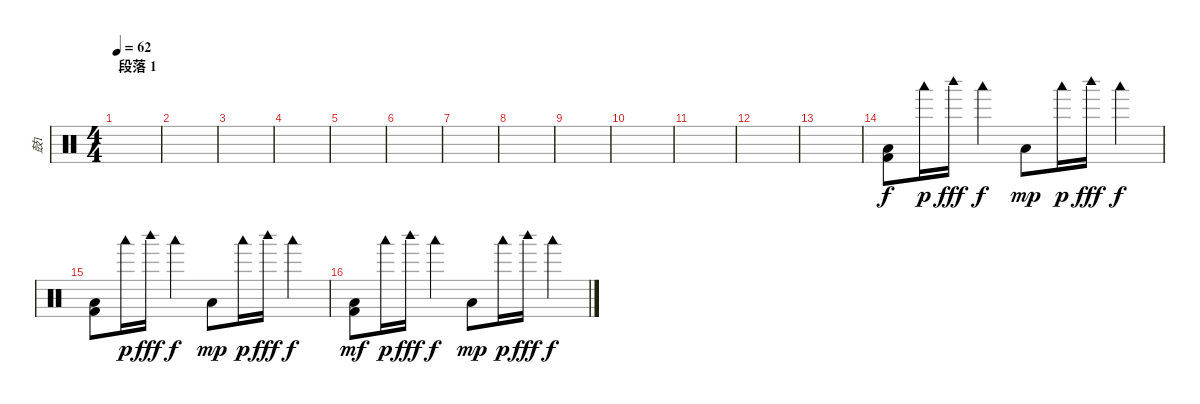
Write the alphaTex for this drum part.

\track ("鼓1" "鼓1") {instrument percussion}
\staff {score}
\articulation defaults
\ts (4 4)
\section ("" "段落 1")
\tempo 62
\clef neutral
\ks c
|
|
|
|
|
|
|
|
|
|
|
|
|
("Low Floor Tom (hit)" "Kick (hit) 2").8 "Woodblock low (hit)".16{dy p} "Woodblock high (hit)".16{dy fff} "Woodblock low (hit)".4{dy f} "Low Floor Tom (hit)".8{dy mp} "Woodblock low (hit)".16{dy p} "Woodblock high (hit)".16{dy fff} "Woodblock low (hit)".4{dy f} |
("Low Floor Tom (hit)" "Kick (hit) 2").8 "Woodblock low (hit)".16{dy p} "Woodblock high (hit)".16{dy fff} "Woodblock low (hit)".4{dy f} "Low Floor Tom (hit)".8{dy mp} "Woodblock low (hit)".16{dy p} "Woodblock high (hit)".16{dy fff} "Woodblock low (hit)".4{dy f} |
("Low Floor Tom (hit)" "Kick (hit) 2").8{dy mf} "Woodblock low (hit)".16{dy p} "Woodblock high (hit)".16{dy fff} "Woodblock low (hit)".4{dy f} "Low Floor Tom (hit)".8{dy mp} "Woodblock low (hit)".16{dy p} "Woodblock high (hit)".16{dy fff} "Woodblock low (hit)".4{dy f}
